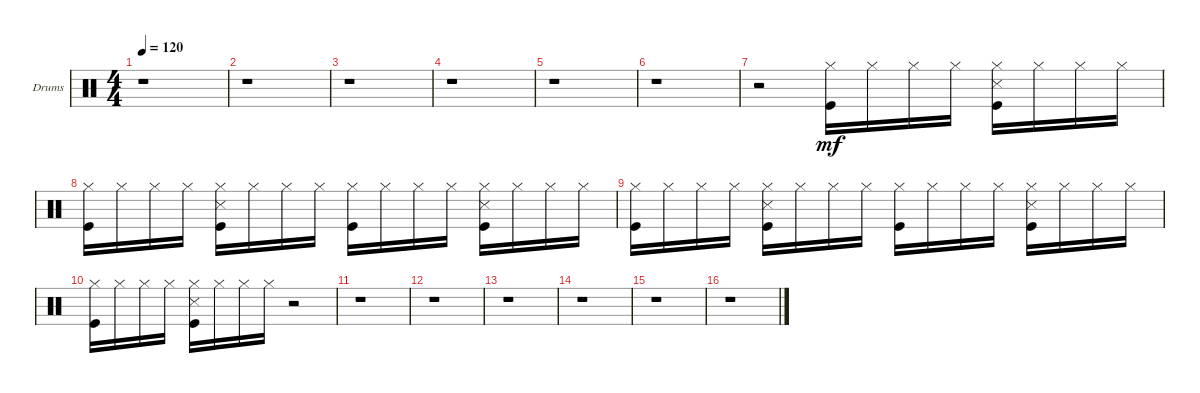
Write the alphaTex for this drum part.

\defaultSystemsLayout 4
\bracketExtendMode groupsimilarinstruments
\firstSystemTrackNameOrientation horizontal
\otherSystemsTrackNameOrientation horizontal
\track ("Drumkit" "Drums") {instrument percussion}
\staff {score}
\articulation defaults
\ts (4 4)
\tempo 120
\clef neutral
\scale
0.333333
\ks c
r.1{dy mf} |
\scale
0.333333 r.1 |
\scale
0.333333 r.1 |
\scale
0.333333 r.1 |
\scale
0.333333 r.1 |
\scale
0.333333 r.1 |
\scale
0.333333 r.2 ("Kick (hit)" "Hi-Hat (closed)").16 "Hi-Hat (closed)".16 "Hi-Hat (closed)".16 "Hi-Hat (closed)".16 ("Hi-Hat (closed)" "Snare (side stick) 3" "Kick (hit)").16 "Hi-Hat (closed)".16 "Hi-Hat (closed)".16 "Hi-Hat (closed)".16 |
\scale
0.333333 ("Hi-Hat (closed)" "Kick (hit)").16 "Hi-Hat (closed)".16 "Hi-Hat (closed)".16 "Hi-Hat (closed)".16 ("Hi-Hat (closed)" "Snare (side stick) 3" "Kick (hit)").16 "Hi-Hat (closed)".16 "Hi-Hat (closed)".16 "Hi-Hat (closed)".16 ("Hi-Hat (closed)" "Kick (hit)").16 "Hi-Hat (closed)".16 "Hi-Hat (closed)".16 "Hi-Hat (closed)".16 ("Hi-Hat (closed)" "Snare (side stick) 3" "Kick (hit)").16 "Hi-Hat (closed)".16 "Hi-Hat (closed)".16 "Hi-Hat (closed)".16 |
\scale
0.333333 ("Hi-Hat (closed)" "Kick (hit)").16 "Hi-Hat (closed)".16 "Hi-Hat (closed)".16 "Hi-Hat (closed)".16 ("Hi-Hat (closed)" "Snare (side stick) 3" "Kick (hit)").16 "Hi-Hat (closed)".16 "Hi-Hat (closed)".16 "Hi-Hat (closed)".16 ("Hi-Hat (closed)" "Kick (hit)").16 "Hi-Hat (closed)".16 "Hi-Hat (closed)".16 "Hi-Hat (closed)".16 ("Hi-Hat (closed)" "Snare (side stick) 3" "Kick (hit)").16 "Hi-Hat (closed)".16 "Hi-Hat (closed)".16 "Hi-Hat (closed)".16 |
\scale
0.333333 ("Hi-Hat (closed)" "Kick (hit)").16 "Hi-Hat (closed)".16 "Hi-Hat (closed)".16 "Hi-Hat (closed)".16 ("Hi-Hat (closed)" "Snare (side stick) 3" "Kick (hit)").16 "Hi-Hat (closed)".16 "Hi-Hat (closed)".16 "Hi-Hat (closed)".16 r.2 |
\scale
0.333333 r.1 |
\scale
0.333333 r.1 |
\scale
0.333333 r.1 |
\scale
0.333333 r.1 |
\scale
0.333333 r.1 |
\scale
0.333333 r.1
